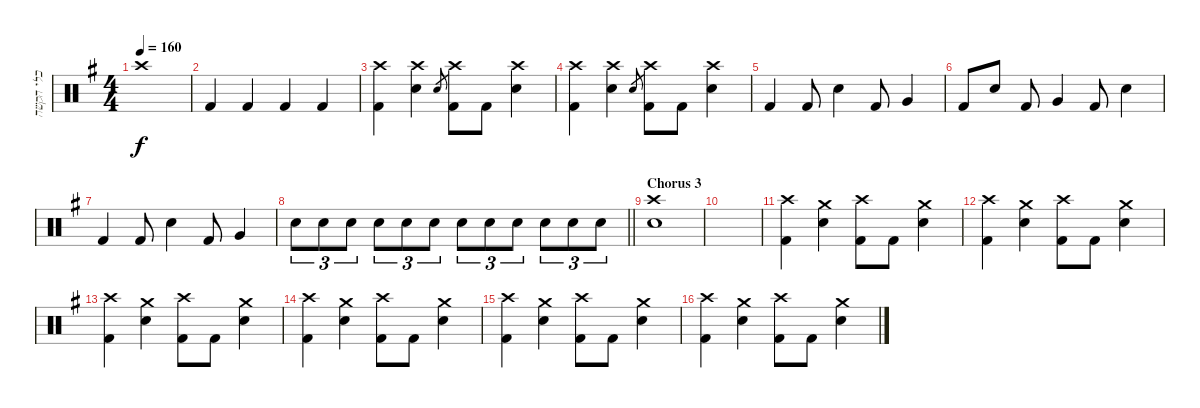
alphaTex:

\track ("כלי הקשה" "כלי הקשה") {instrument percussion bank 127}
\staff {score}
\articulation defaults
\ts (4 4)
\tempo 160
\clef neutral
\ks eminor "Crash high (hit)".1{dy f}
|
"Kick (hit) 2".4 "Kick (hit) 2".4 "Kick (hit) 2".4 "Kick (hit) 2".4 |
("Crash high (hit)" "Kick (hit) 2").4 ("Crash high (hit)" "Electric Snare (hit)").4 "Electric Snare (hit)".8{gr} ("Crash high (hit)" "Kick (hit) 2").8 "Kick (hit) 2".8 ("Crash high (hit)" "Electric Snare (hit)").4 |
("Crash high (hit)" "Kick (hit) 2").4 ("Crash high (hit)" "Electric Snare (hit)").4 "Electric Snare (hit)".8{gr} ("Crash high (hit)" "Kick (hit) 2").8 "Kick (hit) 2".8 ("Crash high (hit)" "Electric Snare (hit)").4 |
"Kick (hit) 2".4 "Kick (hit) 2".8 "Electric Snare (hit)".4 "Kick (hit) 2".8 "Very Low Tom (hit)".4 |
"Kick (hit) 2".8 "Electric Snare (hit)".8 "Kick (hit) 2".8 "Very Low Tom (hit)".4 "Kick (hit) 2".8 "Electric Snare (hit)".4 |
"Kick (hit) 2".4 "Kick (hit) 2".8 "Electric Snare (hit)".4 "Kick (hit) 2".8 "Very Low Tom (hit)".4 |
\barLineRight lightlight "Electric Snare (hit)".8{tu (3 2)} "Electric Snare (hit)".8{tu (3 2)} "Electric Snare (hit)".8{tu (3 2)} "Electric Snare (hit)".8{tu (3 2)} "Electric Snare (hit)".8{tu (3 2)} "Electric Snare (hit)".8{tu (3 2)} "Electric Snare (hit)".8{tu (3 2)} "Electric Snare (hit)".8{tu (3 2)} "Electric Snare (hit)".8{tu (3 2)} "Electric Snare (hit)".8{tu (3 2)} "Electric Snare (hit)".8{tu (3 2)} "Electric Snare (hit)".8{tu (3 2)}
|
\section ("" "Chorus 3")
("Crash high (hit)" "Electric Snare (hit)").1 |
|
("Crash high (hit)" "Kick (hit) 2").4 ("Crash medium (hit)" "Electric Snare (hit)").4 ("Crash high (hit)" "Kick (hit) 2").8 "Kick (hit) 2".8 ("Crash medium (hit)" "Electric Snare (hit)").4 |
("Crash high (hit)" "Kick (hit) 2").4 ("Crash medium (hit)" "Electric Snare (hit)").4 ("Crash high (hit)" "Kick (hit) 2").8 "Kick (hit) 2".8 ("Crash medium (hit)" "Electric Snare (hit)").4 |
("Crash high (hit)" "Kick (hit) 2").4 ("Crash medium (hit)" "Electric Snare (hit)").4 ("Crash high (hit)" "Kick (hit) 2").8 "Kick (hit) 2".8 ("Crash medium (hit)" "Electric Snare (hit)").4 |
("Crash high (hit)" "Kick (hit) 2").4 ("Crash medium (hit)" "Electric Snare (hit)").4 ("Crash high (hit)" "Kick (hit) 2").8 "Kick (hit) 2".8 ("Crash medium (hit)" "Electric Snare (hit)").4 |
("Crash high (hit)" "Kick (hit) 2").4 ("Crash medium (hit)" "Electric Snare (hit)").4 ("Crash high (hit)" "Kick (hit) 2").8 "Kick (hit) 2".8 ("Crash medium (hit)" "Electric Snare (hit)").4 |
("Crash high (hit)" "Kick (hit) 2").4 ("Crash medium (hit)" "Electric Snare (hit)").4 ("Crash high (hit)" "Kick (hit) 2").8 "Kick (hit) 2".8 ("Crash medium (hit)" "Electric Snare (hit)").4
